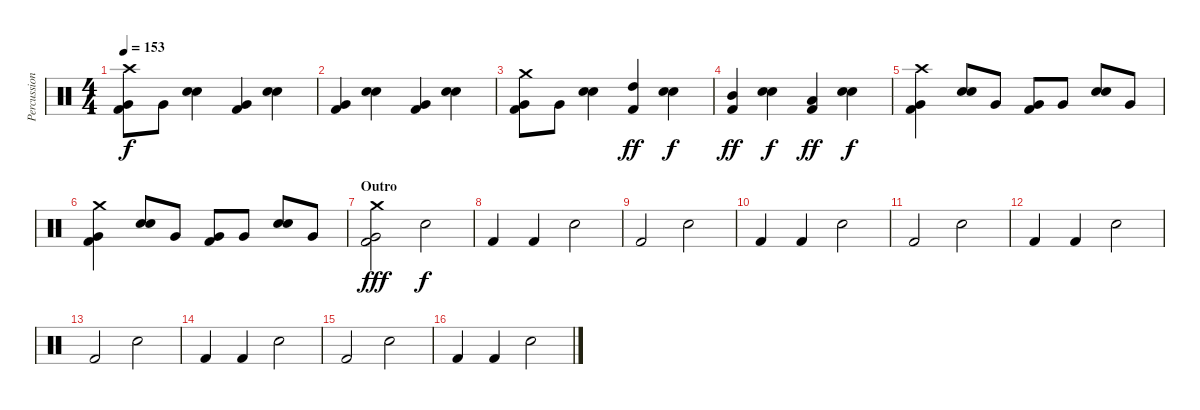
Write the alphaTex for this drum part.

\track ("Percussion" "Percussion") {instrument percussion}
\staff {score}
\articulation defaults
\ts (4 4)
\tempo 153
\clef neutral
\ks c
("Crash high (hit)" "Very Low Tom (hit)" "Kick (hit) 2").8{dy f} "Very Low Tom (hit)".8 ("Electric Snare (hit)" "Snare (hit) 2").4 ("Very Low Tom (hit)" "Kick (hit) 2").4 ("Electric Snare (hit)" "Snare (hit) 2").4 |
("Very Low Tom (hit)" "Kick (hit) 2").4 ("Electric Snare (hit)" "Snare (hit) 2").4 ("Very Low Tom (hit)" "Kick (hit) 2").4 ("Electric Snare (hit)" "Snare (hit) 2").4 |
("Crash medium (hit)" "Very Low Tom (hit)" "Kick (hit) 2").8 "Very Low Tom (hit)".8 ("Electric Snare (hit)" "Snare (hit) 2").4 ("High Tom (hit)" "Kick (hit) 2").4{dy ff} ("Electric Snare (hit)" "Snare (hit) 2").4{dy f} |
("Mid Tom (hit)" "Kick (hit) 2").4{dy ff} ("Electric Snare (hit)" "Snare (hit) 2").4{dy f} ("Low Tom (hit)" "Kick (hit) 2").4{dy ff} ("Electric Snare (hit)" "Snare (hit) 2").4{dy f} |
("Crash high (hit)" "Very Low Tom (hit)" "Kick (hit) 2").4 ("Electric Snare (hit)" "Snare (hit) 2").8 "Very Low Tom (hit)".8 ("Very Low Tom (hit)" "Kick (hit) 2").8 "Very Low Tom (hit)".8 ("Electric Snare (hit)" "Snare (hit) 2").8 "Very Low Tom (hit)".8 |
("Crash medium (hit)" "Very Low Tom (hit)" "Kick (hit) 2").4 ("Electric Snare (hit)" "Snare (hit) 2").8 "Very Low Tom (hit)".8 ("Very Low Tom (hit)" "Kick (hit) 2").8 "Very Low Tom (hit)".8 ("Electric Snare (hit)" "Snare (hit) 2").8 "Very Low Tom (hit)".8 |
\section ("" "Outro")
("Crash medium (hit)" "Very Low Tom (hit)" "Kick (hit) 2").2{dy fff} "Electric Snare (hit)".2{dy f} |
"Kick (hit) 2".4 "Kick (hit) 2".4 "Electric Snare (hit)".2 |
"Kick (hit) 2".2 "Electric Snare (hit)".2 |
"Kick (hit) 2".4 "Kick (hit) 2".4 "Electric Snare (hit)".2 |
"Kick (hit) 2".2 "Electric Snare (hit)".2 |
"Kick (hit) 2".4 "Kick (hit) 2".4 "Electric Snare (hit)".2 |
"Kick (hit) 2".2 "Electric Snare (hit)".2 |
"Kick (hit) 2".4 "Kick (hit) 2".4 "Electric Snare (hit)".2 |
"Kick (hit) 2".2 "Electric Snare (hit)".2 |
"Kick (hit) 2".4 "Kick (hit) 2".4 "Electric Snare (hit)".2
